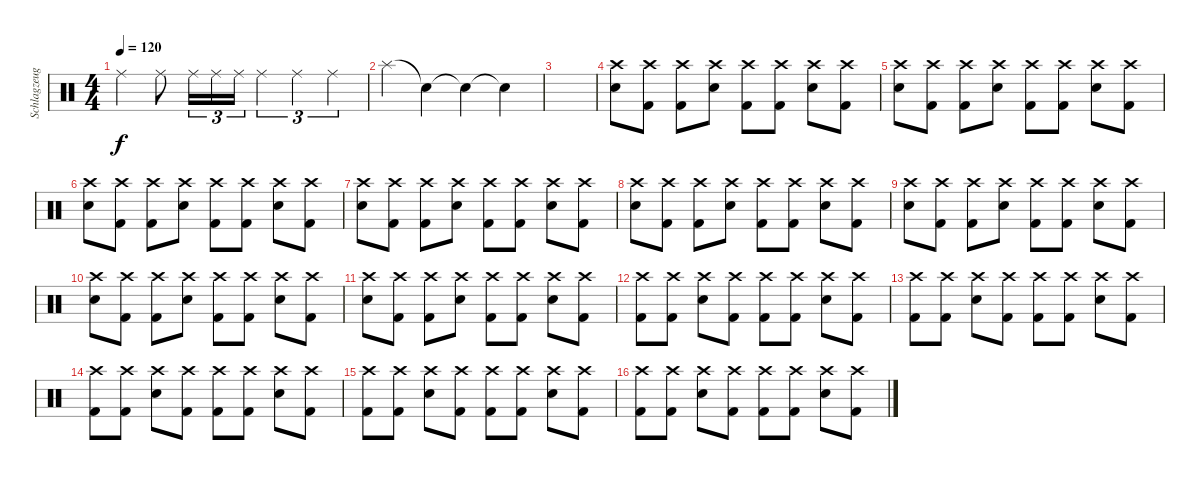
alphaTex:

\track ("Schlagzeug[Gustav Schäfer]" "Schlagzeug") {instrument percussion}
\staff {score}
\articulation defaults
\ts (4 4)
\tempo 120
\clef neutral
\ks c "Ride (middle)".4{dy f} "Ride (middle)".8 "Ride (middle)".16{tu (3 2)} "Ride (middle)".16{tu (3 2)} "Ride (middle)".16{tu (3 2)} "Ride (middle)".4{tu (3 2)} "Ride (middle)".4{tu (3 2)} "Ride (middle)".4{tu (3 2)}
|
"Splash (hit)".4 "Snare (hit)"{t}.4 "Snare (hit)"{t}.4 "Snare (hit)"{t}.4 |
|
("Snare (hit) 2" "Crash high (hit)").8 ("Kick (hit) 2" "Crash high (hit)").8 ("Crash high (hit)" "Kick (hit) 2").8 ("Snare (hit) 2" "Crash high (hit)").8 ("Kick (hit) 2" "Crash high (hit)").8 ("Kick (hit) 2" "Crash high (hit)").8 ("Snare (hit) 2" "Crash high (hit)").8 ("Crash high (hit)" "Kick (hit) 2").8 |
("Snare (hit) 2" "Crash high (hit)").8 ("Kick (hit) 2" "Crash high (hit)").8 ("Crash high (hit)" "Kick (hit) 2").8 ("Snare (hit) 2" "Crash high (hit)").8 ("Kick (hit) 2" "Crash high (hit)").8 ("Kick (hit) 2" "Crash high (hit)").8 ("Snare (hit) 2" "Crash high (hit)").8 ("Crash high (hit)" "Kick (hit) 2").8 |
("Snare (hit) 2" "Crash high (hit)").8 ("Kick (hit) 2" "Crash high (hit)").8 ("Crash high (hit)" "Kick (hit) 2").8 ("Snare (hit) 2" "Crash high (hit)").8 ("Kick (hit) 2" "Crash high (hit)").8 ("Kick (hit) 2" "Crash high (hit)").8 ("Snare (hit) 2" "Crash high (hit)").8 ("Crash high (hit)" "Kick (hit) 2").8 |
("Snare (hit) 2" "Crash high (hit)").8 ("Kick (hit) 2" "Crash high (hit)").8 ("Crash high (hit)" "Kick (hit) 2").8 ("Snare (hit) 2" "Crash high (hit)").8 ("Kick (hit) 2" "Crash high (hit)").8 ("Kick (hit) 2" "Crash high (hit)").8 ("Snare (hit) 2" "Crash high (hit)").8 ("Crash high (hit)" "Kick (hit) 2").8 |
("Snare (hit) 2" "Crash high (hit)").8 ("Kick (hit) 2" "Crash high (hit)").8 ("Crash high (hit)" "Kick (hit) 2").8 ("Snare (hit) 2" "Crash high (hit)").8 ("Kick (hit) 2" "Crash high (hit)").8 ("Kick (hit) 2" "Crash high (hit)").8 ("Snare (hit) 2" "Crash high (hit)").8 ("Crash high (hit)" "Kick (hit) 2").8 |
("Snare (hit) 2" "Crash high (hit)").8 ("Kick (hit) 2" "Crash high (hit)").8 ("Crash high (hit)" "Kick (hit) 2").8 ("Snare (hit) 2" "Crash high (hit)").8 ("Kick (hit) 2" "Crash high (hit)").8 ("Kick (hit) 2" "Crash high (hit)").8 ("Snare (hit) 2" "Crash high (hit)").8 ("Crash high (hit)" "Kick (hit) 2").8 |
("Snare (hit) 2" "Crash high (hit)").8 ("Kick (hit) 2" "Crash high (hit)").8 ("Crash high (hit)" "Kick (hit) 2").8 ("Snare (hit) 2" "Crash high (hit)").8 ("Kick (hit) 2" "Crash high (hit)").8 ("Kick (hit) 2" "Crash high (hit)").8 ("Snare (hit) 2" "Crash high (hit)").8 ("Crash high (hit)" "Kick (hit) 2").8 |
("Snare (hit) 2" "Crash high (hit)").8 ("Kick (hit) 2" "Crash high (hit)").8 ("Crash high (hit)" "Kick (hit) 2").8 ("Snare (hit) 2" "Crash high (hit)").8 ("Kick (hit) 2" "Crash high (hit)").8 ("Kick (hit) 2" "Crash high (hit)").8 ("Snare (hit) 2" "Crash high (hit)").8 ("Crash high (hit)" "Kick (hit) 2").8 |
("Crash high (hit)" "Kick (hit) 2").8 ("Crash high (hit)" "Kick (hit) 2").8 ("Snare (hit) 2" "Crash high (hit)").8 ("Crash high (hit)" "Kick (hit) 2").8 ("Kick (hit) 2" "Crash high (hit)").8 ("Crash high (hit)" "Kick (hit) 2").8 ("Snare (hit) 2" "Crash high (hit)").8 ("Crash high (hit)" "Kick (hit) 2").8 |
("Crash high (hit)" "Kick (hit) 2").8 ("Crash high (hit)" "Kick (hit) 2").8 ("Snare (hit) 2" "Crash high (hit)").8 ("Crash high (hit)" "Kick (hit) 2").8 ("Kick (hit) 2" "Crash high (hit)").8 ("Crash high (hit)" "Kick (hit) 2").8 ("Snare (hit) 2" "Crash high (hit)").8 ("Crash high (hit)" "Kick (hit) 2").8 |
("Crash high (hit)" "Kick (hit) 2").8 ("Crash high (hit)" "Kick (hit) 2").8 ("Snare (hit) 2" "Crash high (hit)").8 ("Crash high (hit)" "Kick (hit) 2").8 ("Kick (hit) 2" "Crash high (hit)").8 ("Crash high (hit)" "Kick (hit) 2").8 ("Snare (hit) 2" "Crash high (hit)").8 ("Crash high (hit)" "Kick (hit) 2").8 |
("Crash high (hit)" "Kick (hit) 2").8 ("Crash high (hit)" "Kick (hit) 2").8 ("Snare (hit) 2" "Crash high (hit)").8 ("Crash high (hit)" "Kick (hit) 2").8 ("Kick (hit) 2" "Crash high (hit)").8 ("Crash high (hit)" "Kick (hit) 2").8 ("Snare (hit) 2" "Crash high (hit)").8 ("Crash high (hit)" "Kick (hit) 2").8 |
("Crash high (hit)" "Kick (hit) 2").8 ("Crash high (hit)" "Kick (hit) 2").8 ("Snare (hit) 2" "Crash high (hit)").8 ("Crash high (hit)" "Kick (hit) 2").8 ("Kick (hit) 2" "Crash high (hit)").8 ("Crash high (hit)" "Kick (hit) 2").8 ("Snare (hit) 2" "Crash high (hit)").8 ("Crash high (hit)" "Kick (hit) 2").8
